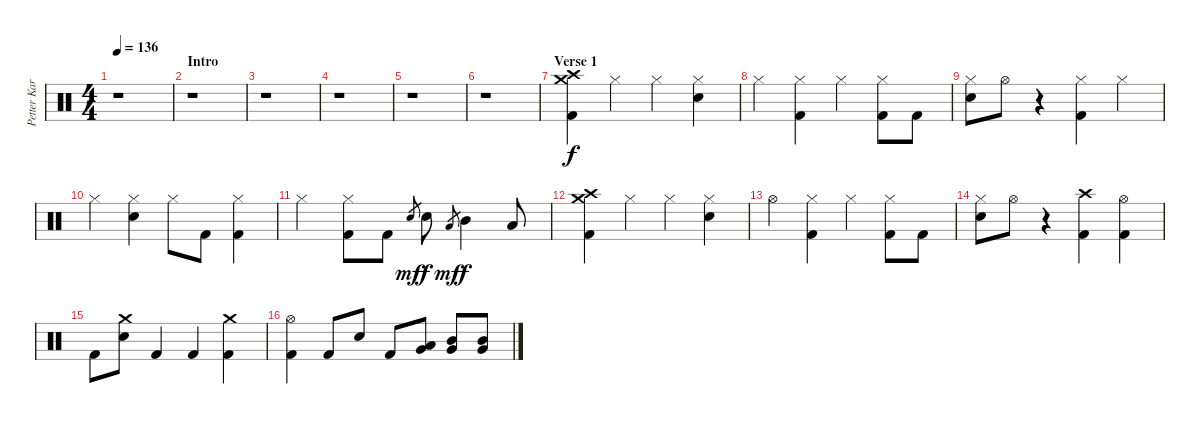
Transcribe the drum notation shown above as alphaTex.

\track ("Petter Karlsson" "Petter Kar") {instrument percussion}
\staff {score}
\articulation defaults
\ts (4 4)
\tempo 136
\clef neutral
\ks c
r.1{dy f} |
\section ("" "Intro")
r.1 |
r.1 |
r.1 |
r.1 |
r.1 |
\section ("" "Verse 1")
("Crash high (hit)" "Crash medium (hit)" "Kick (hit) 2").4 "Hi-Hat (closed)".4 "Hi-Hat (closed)".4 ("Hi-Hat (closed)" "Snare (hit) 2").4 |
"Hi-Hat (closed)".4 ("Hi-Hat (closed)" "Kick (hit) 2").4 "Hi-Hat (closed)".4 ("Hi-Hat (closed)" "Kick (hit) 2").8 "Kick (hit) 2".8 |
("Hi-Hat (closed)" "Snare (hit) 2").8 "Hi-Hat (open)".8 r.4 ("Hi-Hat (closed)" "Kick (hit) 2").4 "Hi-Hat (closed)".4 |
"Hi-Hat (closed)".4 ("Hi-Hat (closed)" "Snare (hit) 2").4 "Hi-Hat (closed)".8 "Kick (hit) 2".8 ("Hi-Hat (closed)" "Kick (hit) 2").4 |
"Hi-Hat (closed)".4 ("Hi-Hat (closed)" "Kick (hit) 2").8 "Kick (hit) 2".8 "Snare (hit) 2".8{gr dy mf} "Snare (hit) 2".8{dy f} "Low Tom (hit)".8{gr dy mf} "Mid Tom (hit)".4{dy f} "Low Tom (hit)".8 |
("Crash high (hit)" "Crash medium (hit)" "Kick (hit) 2").4 "Hi-Hat (closed)".4 "Hi-Hat (closed)".4 ("Hi-Hat (closed)" "Snare (hit) 2").4 |
"Hi-Hat (open)".4 ("Hi-Hat (closed)" "Kick (hit) 2").4 "Hi-Hat (closed)".4 ("Hi-Hat (closed)" "Kick (hit) 2").8 "Kick (hit) 2".8 |
("Hi-Hat (closed)" "Snare (hit) 2").8 "Hi-Hat (open)".8 r.4 ("Crash high (hit)" "Kick (hit) 2").4 ("Hi-Hat (open)" "Kick (hit) 2").4 |
"Kick (hit) 2".8 ("Crash medium (hit)" "Snare (hit) 2").8 "Kick (hit) 2".4 "Kick (hit) 2".4 ("Crash medium (hit)" "Kick (hit) 2").4 |
("Hi-Hat (open)" "Kick (hit) 2").4 "Kick (hit) 2".8 "Snare (hit) 2".8 "Kick (hit) 2".8 ("Low Tom (hit)" "Very Low Tom (hit)").8 ("Mid Tom (hit)" "Very Low Tom (hit)").8 ("Mid Tom (hit)" "Very Low Tom (hit)").8
